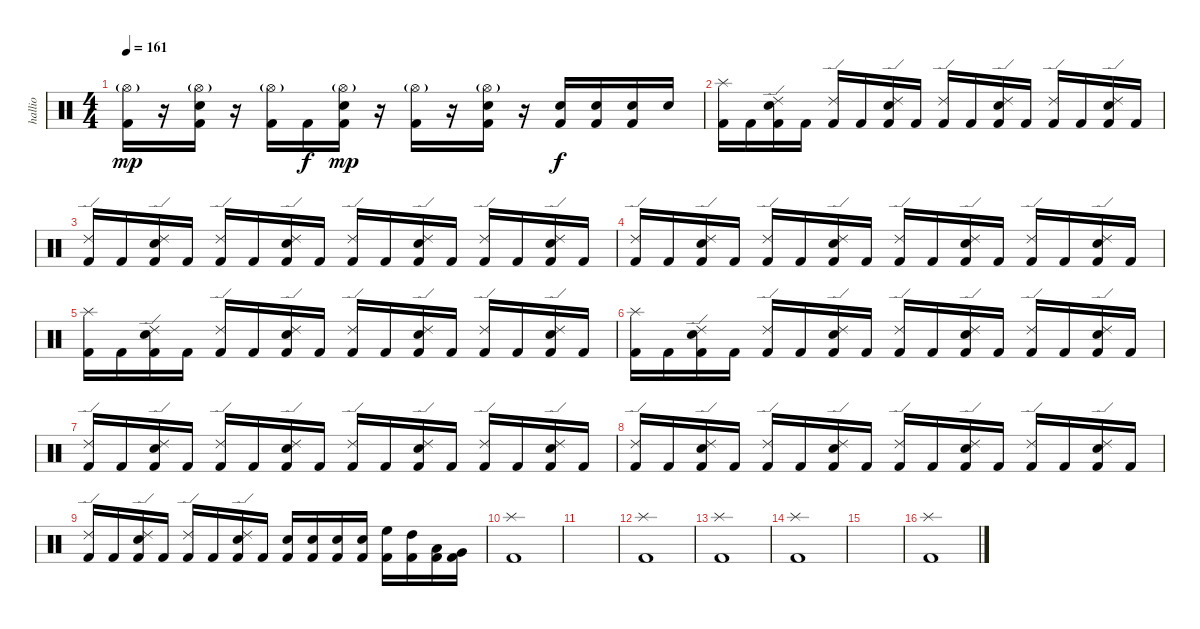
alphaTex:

\track ("hallio" "hallio") {instrument percussion}
\staff {score}
\articulation defaults
\ts (4 4)
\tempo 161
\clef neutral
\ks c
("Kick (hit) 2" "Hi-Hat (open)"{g}).16{dy mp} r.16 ("Kick (hit) 2" "Snare (hit) 2" "Hi-Hat (open)"{g}).16 r.16 ("Kick (hit) 2" "Hi-Hat (open)"{g}).16 "Kick (hit) 2".16{dy f} ("Kick (hit) 2" "Snare (hit) 2" "Hi-Hat (open)"{g}).16{dy mp} r.16 ("Kick (hit) 2" "Hi-Hat (open)"{g}).16 r.16 ("Kick (hit) 2" "Snare (hit) 2" "Hi-Hat (open)"{g}).16 r.16 ("Kick (hit) 2" "Snare (hit) 2").16{dy f} ("Kick (hit) 2" "Snare (hit) 2").16 ("Kick (hit) 2" "Snare (hit) 2").16 "Snare (hit) 2".16 |
("Kick (hit) 2" "Splash (hit)").16 "Kick (hit) 2".16 ("Kick (hit) 2" "Snare (hit) 2" "Ride (edge) 2").16 "Kick (hit) 2".16 ("Kick (hit) 2" "Ride (edge) 2").16 "Kick (hit) 2".16 ("Kick (hit) 2" "Snare (hit) 2" "Ride (edge) 2").16 "Kick (hit) 2".16 ("Kick (hit) 2" "Ride (edge) 2").16 "Kick (hit) 2".16 ("Kick (hit) 2" "Snare (hit) 2" "Ride (edge) 2").16 "Kick (hit) 2".16 ("Kick (hit) 2" "Ride (edge) 2").16 "Kick (hit) 2".16 ("Kick (hit) 2" "Snare (hit) 2" "Ride (edge) 2").16 "Kick (hit) 2".16 |
("Kick (hit) 2" "Ride (edge) 2").16 "Kick (hit) 2".16 ("Kick (hit) 2" "Snare (hit) 2" "Ride (edge) 2").16 "Kick (hit) 2".16 ("Kick (hit) 2" "Ride (edge) 2").16 "Kick (hit) 2".16 ("Kick (hit) 2" "Snare (hit) 2" "Ride (edge) 2").16 "Kick (hit) 2".16 ("Kick (hit) 2" "Ride (edge) 2").16 "Kick (hit) 2".16 ("Kick (hit) 2" "Snare (hit) 2" "Ride (edge) 2").16 "Kick (hit) 2".16 ("Kick (hit) 2" "Ride (edge) 2").16 "Kick (hit) 2".16 ("Kick (hit) 2" "Snare (hit) 2" "Ride (edge) 2").16 "Kick (hit) 2".16 |
("Kick (hit) 2" "Ride (edge) 2").16 "Kick (hit) 2".16 ("Kick (hit) 2" "Snare (hit) 2" "Ride (edge) 2").16 "Kick (hit) 2".16 ("Kick (hit) 2" "Ride (edge) 2").16 "Kick (hit) 2".16 ("Kick (hit) 2" "Snare (hit) 2" "Ride (edge) 2").16 "Kick (hit) 2".16 ("Kick (hit) 2" "Ride (edge) 2").16 "Kick (hit) 2".16 ("Kick (hit) 2" "Snare (hit) 2" "Ride (edge) 2").16 "Kick (hit) 2".16 ("Kick (hit) 2" "Ride (edge) 2").16 "Kick (hit) 2".16 ("Kick (hit) 2" "Snare (hit) 2" "Ride (edge) 2").16 "Kick (hit) 2".16 |
("Kick (hit) 2" "Splash (hit)").16 "Kick (hit) 2".16 ("Kick (hit) 2" "Snare (hit) 2" "Ride (edge) 2").16 "Kick (hit) 2".16 ("Kick (hit) 2" "Ride (edge) 2").16 "Kick (hit) 2".16 ("Kick (hit) 2" "Snare (hit) 2" "Ride (edge) 2").16 "Kick (hit) 2".16 ("Kick (hit) 2" "Ride (edge) 2").16 "Kick (hit) 2".16 ("Kick (hit) 2" "Snare (hit) 2" "Ride (edge) 2").16 "Kick (hit) 2".16 ("Kick (hit) 2" "Ride (edge) 2").16 "Kick (hit) 2".16 ("Kick (hit) 2" "Snare (hit) 2" "Ride (edge) 2").16 "Kick (hit) 2".16 |
("Kick (hit) 2" "Splash (hit)").16 "Kick (hit) 2".16 ("Kick (hit) 2" "Snare (hit) 2" "Ride (edge) 2").16 "Kick (hit) 2".16 ("Kick (hit) 2" "Ride (edge) 2").16 "Kick (hit) 2".16 ("Kick (hit) 2" "Snare (hit) 2" "Ride (edge) 2").16 "Kick (hit) 2".16 ("Kick (hit) 2" "Ride (edge) 2").16 "Kick (hit) 2".16 ("Kick (hit) 2" "Snare (hit) 2" "Ride (edge) 2").16 "Kick (hit) 2".16 ("Kick (hit) 2" "Ride (edge) 2").16 "Kick (hit) 2".16 ("Kick (hit) 2" "Snare (hit) 2" "Ride (edge) 2").16 "Kick (hit) 2".16 |
("Kick (hit) 2" "Ride (edge) 2").16 "Kick (hit) 2".16 ("Kick (hit) 2" "Snare (hit) 2" "Ride (edge) 2").16 "Kick (hit) 2".16 ("Kick (hit) 2" "Ride (edge) 2").16 "Kick (hit) 2".16 ("Kick (hit) 2" "Snare (hit) 2" "Ride (edge) 2").16 "Kick (hit) 2".16 ("Kick (hit) 2" "Ride (edge) 2").16 "Kick (hit) 2".16 ("Kick (hit) 2" "Snare (hit) 2" "Ride (edge) 2").16 "Kick (hit) 2".16 ("Kick (hit) 2" "Ride (edge) 2").16 "Kick (hit) 2".16 ("Kick (hit) 2" "Snare (hit) 2" "Ride (edge) 2").16 "Kick (hit) 2".16 |
("Kick (hit) 2" "Ride (edge) 2").16 "Kick (hit) 2".16 ("Kick (hit) 2" "Snare (hit) 2" "Ride (edge) 2").16 "Kick (hit) 2".16 ("Kick (hit) 2" "Ride (edge) 2").16 "Kick (hit) 2".16 ("Kick (hit) 2" "Snare (hit) 2" "Ride (edge) 2").16 "Kick (hit) 2".16 ("Kick (hit) 2" "Ride (edge) 2").16 "Kick (hit) 2".16 ("Kick (hit) 2" "Snare (hit) 2" "Ride (edge) 2").16 "Kick (hit) 2".16 ("Kick (hit) 2" "Ride (edge) 2").16 "Kick (hit) 2".16 ("Kick (hit) 2" "Snare (hit) 2" "Ride (edge) 2").16 "Kick (hit) 2".16 |
("Kick (hit) 2" "Ride (edge) 2").16 "Kick (hit) 2".16 ("Kick (hit) 2" "Snare (hit) 2" "Ride (edge) 2").16 "Kick (hit) 2".16 ("Kick (hit) 2" "Ride (edge) 2").16 "Kick (hit) 2".16 ("Kick (hit) 2" "Snare (hit) 2" "Ride (edge) 2").16 "Kick (hit) 2".16 ("Kick (hit) 2" "Snare (hit) 2").16 ("Kick (hit) 2" "Snare (hit) 2").16 ("Kick (hit) 2" "Snare (hit) 2").16 ("Kick (hit) 2" "Snare (hit) 2").16 ("Kick (hit) 2" "High Floor Tom (hit)").16 ("Kick (hit) 2" "High Tom (hit)").16 ("Kick (hit) 2" "Low Tom (hit)").16 ("Kick (hit) 2" "Very Low Tom (hit)").16 |
("Kick (hit) 2" "Splash (hit)").1 |
|
("Kick (hit) 2" "Splash (hit)").1 |
("Kick (hit) 2" "Splash (hit)").1 |
("Kick (hit) 2" "Splash (hit)").1 |
|
("Kick (hit) 2" "Splash (hit)").1
